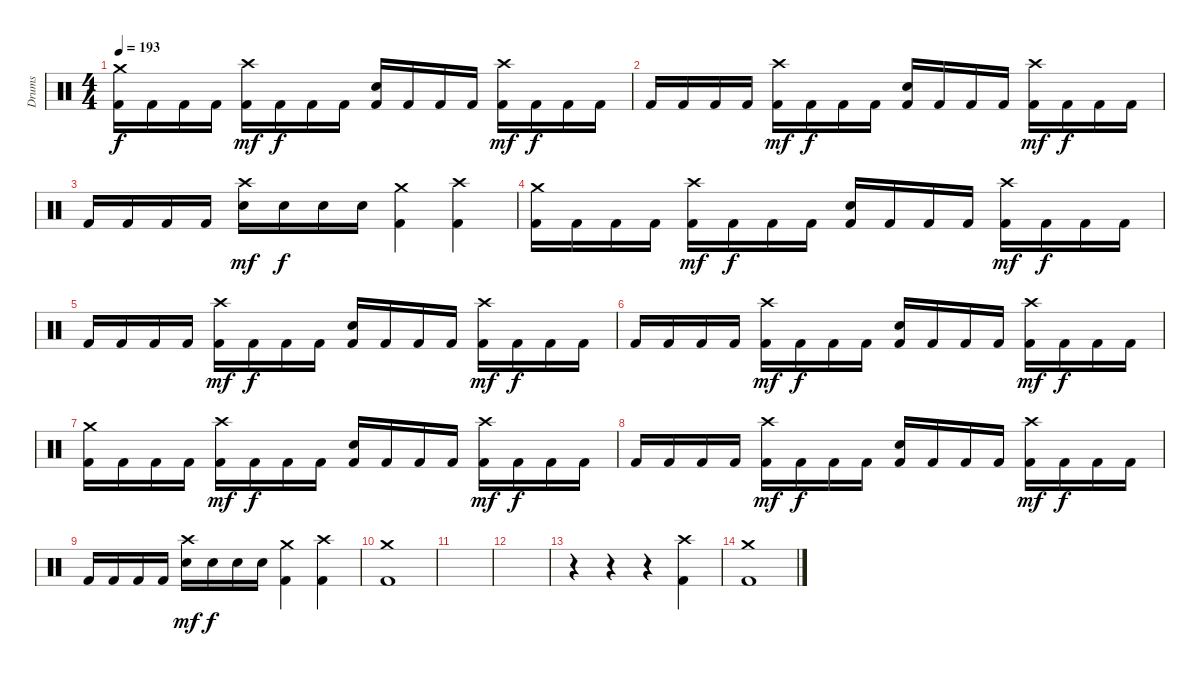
\track ("Drums" "Drums") {instrument percussion}
\staff {score}
\articulation defaults
\ts (4 4)
\tempo 193
\clef neutral
\ks c
("Crash medium (hit)" "Kick (hit) 2").16{dy f} "Kick (hit) 2".16 "Kick (hit) 2".16 "Kick (hit) 2".16 ("Crash high (hit)" "Kick (hit) 2").16{dy mf} "Kick (hit) 2".16{dy f} "Kick (hit) 2".16 "Kick (hit) 2".16 ("Snare (hit) 2" "Kick (hit) 2").16 "Kick (hit) 2".16 "Kick (hit) 2".16 "Kick (hit) 2".16 ("Crash high (hit)" "Kick (hit) 2").16{dy mf} "Kick (hit) 2".16{dy f} "Kick (hit) 2".16 "Kick (hit) 2".16 |
"Kick (hit) 2".16 "Kick (hit) 2".16 "Kick (hit) 2".16 "Kick (hit) 2".16 ("Crash high (hit)" "Kick (hit) 2").16{dy mf} "Kick (hit) 2".16{dy f} "Kick (hit) 2".16 "Kick (hit) 2".16 ("Snare (hit) 2" "Kick (hit) 2").16 "Kick (hit) 2".16 "Kick (hit) 2".16 "Kick (hit) 2".16 ("Crash high (hit)" "Kick (hit) 2").16{dy mf} "Kick (hit) 2".16{dy f} "Kick (hit) 2".16 "Kick (hit) 2".16 |
"Kick (hit) 2".16 "Kick (hit) 2".16 "Kick (hit) 2".16 "Kick (hit) 2".16 ("Crash high (hit)" "Snare (hit) 2").16{dy mf} "Snare (hit) 2".16{dy f} "Snare (hit) 2".16 "Snare (hit) 2".16 ("Crash medium (hit)" "Kick (hit) 2").4 ("Crash high (hit)" "Kick (hit) 2").4 |
("Crash medium (hit)" "Kick (hit) 2").16 "Kick (hit) 2".16 "Kick (hit) 2".16 "Kick (hit) 2".16 ("Crash high (hit)" "Kick (hit) 2").16{dy mf} "Kick (hit) 2".16{dy f} "Kick (hit) 2".16 "Kick (hit) 2".16 ("Snare (hit) 2" "Kick (hit) 2").16 "Kick (hit) 2".16 "Kick (hit) 2".16 "Kick (hit) 2".16 ("Crash high (hit)" "Kick (hit) 2").16{dy mf} "Kick (hit) 2".16{dy f} "Kick (hit) 2".16 "Kick (hit) 2".16 |
"Kick (hit) 2".16 "Kick (hit) 2".16 "Kick (hit) 2".16 "Kick (hit) 2".16 ("Crash high (hit)" "Kick (hit) 2").16{dy mf} "Kick (hit) 2".16{dy f} "Kick (hit) 2".16 "Kick (hit) 2".16 ("Snare (hit) 2" "Kick (hit) 2").16 "Kick (hit) 2".16 "Kick (hit) 2".16 "Kick (hit) 2".16 ("Crash high (hit)" "Kick (hit) 2").16{dy mf} "Kick (hit) 2".16{dy f} "Kick (hit) 2".16 "Kick (hit) 2".16 |
"Kick (hit) 2".16 "Kick (hit) 2".16 "Kick (hit) 2".16 "Kick (hit) 2".16 ("Crash high (hit)" "Kick (hit) 2").16{dy mf} "Kick (hit) 2".16{dy f} "Kick (hit) 2".16 "Kick (hit) 2".16 ("Snare (hit) 2" "Kick (hit) 2").16 "Kick (hit) 2".16 "Kick (hit) 2".16 "Kick (hit) 2".16 ("Crash high (hit)" "Kick (hit) 2").16{dy mf} "Kick (hit) 2".16{dy f} "Kick (hit) 2".16 "Kick (hit) 2".16 |
("Crash medium (hit)" "Kick (hit) 2").16 "Kick (hit) 2".16 "Kick (hit) 2".16 "Kick (hit) 2".16 ("Crash high (hit)" "Kick (hit) 2").16{dy mf} "Kick (hit) 2".16{dy f} "Kick (hit) 2".16 "Kick (hit) 2".16 ("Snare (hit) 2" "Kick (hit) 2").16 "Kick (hit) 2".16 "Kick (hit) 2".16 "Kick (hit) 2".16 ("Crash high (hit)" "Kick (hit) 2").16{dy mf} "Kick (hit) 2".16{dy f} "Kick (hit) 2".16 "Kick (hit) 2".16 |
"Kick (hit) 2".16 "Kick (hit) 2".16 "Kick (hit) 2".16 "Kick (hit) 2".16 ("Crash high (hit)" "Kick (hit) 2").16{dy mf} "Kick (hit) 2".16{dy f} "Kick (hit) 2".16 "Kick (hit) 2".16 ("Snare (hit) 2" "Kick (hit) 2").16 "Kick (hit) 2".16 "Kick (hit) 2".16 "Kick (hit) 2".16 ("Crash high (hit)" "Kick (hit) 2").16{dy mf} "Kick (hit) 2".16{dy f} "Kick (hit) 2".16 "Kick (hit) 2".16 |
"Kick (hit) 2".16 "Kick (hit) 2".16 "Kick (hit) 2".16 "Kick (hit) 2".16 ("Crash high (hit)" "Snare (hit) 2").16{dy mf} "Snare (hit) 2".16{dy f} "Snare (hit) 2".16 "Snare (hit) 2".16 ("Crash medium (hit)" "Kick (hit) 2").4 ("Crash high (hit)" "Kick (hit) 2").4 |
("Crash medium (hit)" "Kick (hit) 2").1 |
|
|
r.4 r.4 r.4 ("Crash high (hit)" "Kick (hit) 2").4 |
("Crash medium (hit)" "Kick (hit) 2").1
